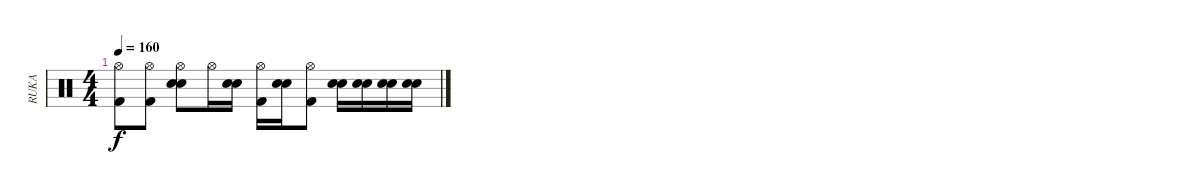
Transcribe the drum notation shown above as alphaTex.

\track ("RUKA" "RUKA") {instrument percussion}
\staff {score}
\articulation defaults
\ts (4 4)
\tempo 160
\clef neutral
\ks c
("Hi-Hat (open)" "Kick (hit) 2").8{dy f} ("Hi-Hat (open)" "Kick (hit) 2").8 ("Hi-Hat (open)" "Snare (hit) 2" "Electric Snare (hit)").8 "Hi-Hat (open)".16 ("Snare (hit) 2" "Electric Snare (hit)").16 ("Hi-Hat (open)" "Kick (hit) 2").16 ("Snare (hit) 2" "Electric Snare (hit)").16 ("Hi-Hat (open)" "Kick (hit) 2").8 ("Snare (hit) 2" "Electric Snare (hit)").16 ("Snare (hit) 2" "Electric Snare (hit)").16 ("Snare (hit) 2" "Electric Snare (hit)").16 ("Snare (hit) 2" "Electric Snare (hit)").16
